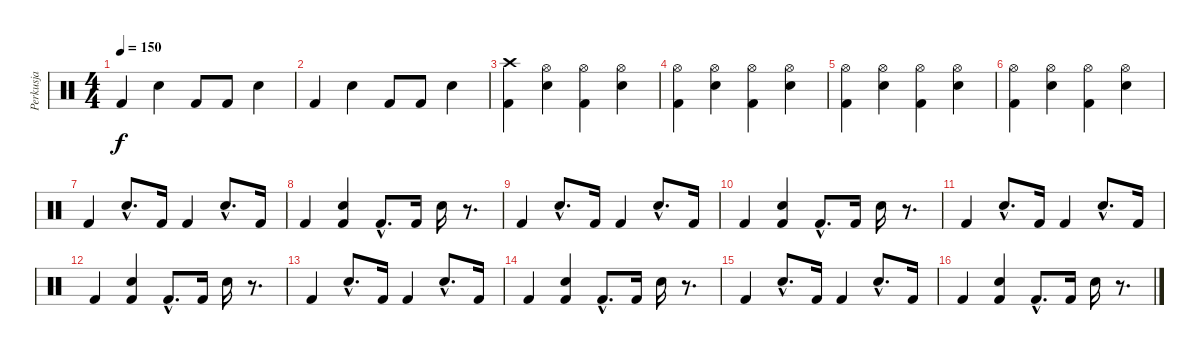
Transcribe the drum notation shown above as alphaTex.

\track ("Perkusja" "Perkusja") {instrument percussion}
\staff {score}
\articulation defaults
\ts (4 4)
\tempo 150
\clef neutral
\ks c "Kick (hit) 2".4{dy f} "Electric Snare (hit)".4 "Kick (hit) 2".8 "Kick (hit) 2".8 "Electric Snare (hit)".4
|
"Kick (hit) 2".4 "Electric Snare (hit)".4 "Kick (hit) 2".8 "Kick (hit) 2".8 "Electric Snare (hit)".4 |
("Crash high (hit)" "Kick (hit) 2").4 ("Hi-Hat (open)" "Electric Snare (hit)").4 ("Hi-Hat (open)" "Kick (hit) 2").4 ("Hi-Hat (open)" "Electric Snare (hit)").4 |
("Hi-Hat (open)" "Kick (hit) 2").4 ("Hi-Hat (open)" "Electric Snare (hit)").4 ("Hi-Hat (open)" "Kick (hit) 2").4 ("Hi-Hat (open)" "Electric Snare (hit)").4 |
("Hi-Hat (open)" "Kick (hit) 2").4 ("Hi-Hat (open)" "Electric Snare (hit)").4 ("Hi-Hat (open)" "Kick (hit) 2").4 ("Hi-Hat (open)" "Electric Snare (hit)").4 |
("Hi-Hat (open)" "Kick (hit) 2").4 ("Hi-Hat (open)" "Electric Snare (hit)").4 ("Hi-Hat (open)" "Kick (hit) 2").4 ("Hi-Hat (open)" "Electric Snare (hit)").4 |
"Kick (hit) 2".4 "Electric Snare (hit)"{hac}.8{d} "Kick (hit) 2".16 "Kick (hit) 2".4 "Electric Snare (hit)"{hac}.8{d} "Kick (hit) 2".16 |
"Kick (hit) 2".4 ("Electric Snare (hit)" "Kick (hit) 2").4 "Kick (hit) 2"{hac}.8{d} "Kick (hit) 2".16 "Electric Snare (hit)".16 r.8{d} |
"Kick (hit) 2".4 "Electric Snare (hit)"{hac}.8{d} "Kick (hit) 2".16 "Kick (hit) 2".4 "Electric Snare (hit)"{hac}.8{d} "Kick (hit) 2".16 |
"Kick (hit) 2".4 ("Electric Snare (hit)" "Kick (hit) 2").4 "Kick (hit) 2"{hac}.8{d} "Kick (hit) 2".16 "Electric Snare (hit)".16 r.8{d} |
"Kick (hit) 2".4 "Electric Snare (hit)"{hac}.8{d} "Kick (hit) 2".16 "Kick (hit) 2".4 "Electric Snare (hit)"{hac}.8{d} "Kick (hit) 2".16 |
"Kick (hit) 2".4 ("Electric Snare (hit)" "Kick (hit) 2").4 "Kick (hit) 2"{hac}.8{d} "Kick (hit) 2".16 "Electric Snare (hit)".16 r.8{d} |
"Kick (hit) 2".4 "Electric Snare (hit)"{hac}.8{d} "Kick (hit) 2".16 "Kick (hit) 2".4 "Electric Snare (hit)"{hac}.8{d} "Kick (hit) 2".16 |
"Kick (hit) 2".4 ("Electric Snare (hit)" "Kick (hit) 2").4 "Kick (hit) 2"{hac}.8{d} "Kick (hit) 2".16 "Electric Snare (hit)".16 r.8{d} |
"Kick (hit) 2".4 "Electric Snare (hit)"{hac}.8{d} "Kick (hit) 2".16 "Kick (hit) 2".4 "Electric Snare (hit)"{hac}.8{d} "Kick (hit) 2".16 |
"Kick (hit) 2".4 ("Electric Snare (hit)" "Kick (hit) 2").4 "Kick (hit) 2"{hac}.8{d} "Kick (hit) 2".16 "Electric Snare (hit)".16 r.8{d}
